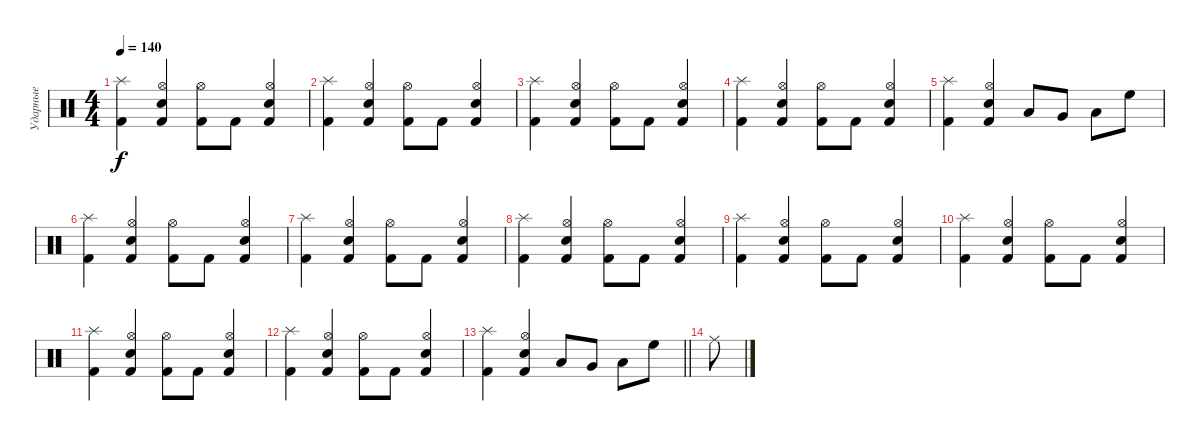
\track ("Ударные" "Ударные") {instrument percussion}
\staff {score}
\articulation defaults
\ts (4 4)
\tempo 140
\clef neutral
\ks c
("Splash (hit)" "Kick (hit) 2").4{dy f} ("Hi-Hat (open)" "Electric Snare (hit)" "Kick (hit) 2").4 ("Hi-Hat (open)" "Kick (hit) 2").8 "Kick (hit) 2".8 ("Hi-Hat (open)" "Electric Snare (hit)" "Kick (hit) 2").4 |
("Splash (hit)" "Kick (hit) 2").4 ("Hi-Hat (open)" "Electric Snare (hit)" "Kick (hit) 2").4 ("Hi-Hat (open)" "Kick (hit) 2").8 "Kick (hit) 2".8 ("Hi-Hat (open)" "Electric Snare (hit)" "Kick (hit) 2").4 |
("Splash (hit)" "Kick (hit) 2").4 ("Hi-Hat (open)" "Electric Snare (hit)" "Kick (hit) 2").4 ("Hi-Hat (open)" "Kick (hit) 2").8 "Kick (hit) 2".8 ("Hi-Hat (open)" "Electric Snare (hit)" "Kick (hit) 2").4 |
("Splash (hit)" "Kick (hit) 2").4 ("Hi-Hat (open)" "Electric Snare (hit)" "Kick (hit) 2").4 ("Hi-Hat (open)" "Kick (hit) 2").8 "Kick (hit) 2".8 ("Hi-Hat (open)" "Electric Snare (hit)" "Kick (hit) 2").4 |
("Splash (hit)" "Kick (hit) 2").4 ("Hi-Hat (open)" "Electric Snare (hit)" "Kick (hit) 2").4 "Low Floor Tom (hit)".8 "Very Low Tom (hit)".8 "Low Tom (hit)".8 "High Floor Tom (hit)".8 |
("Splash (hit)" "Kick (hit) 2").4 ("Hi-Hat (open)" "Electric Snare (hit)" "Kick (hit) 2").4 ("Hi-Hat (open)" "Kick (hit) 2").8 "Kick (hit) 2".8 ("Hi-Hat (open)" "Electric Snare (hit)" "Kick (hit) 2").4 |
("Splash (hit)" "Kick (hit) 2").4 ("Hi-Hat (open)" "Electric Snare (hit)" "Kick (hit) 2").4 ("Hi-Hat (open)" "Kick (hit) 2").8 "Kick (hit) 2".8 ("Hi-Hat (open)" "Electric Snare (hit)" "Kick (hit) 2").4 |
("Splash (hit)" "Kick (hit) 2").4 ("Hi-Hat (open)" "Electric Snare (hit)" "Kick (hit) 2").4 ("Hi-Hat (open)" "Kick (hit) 2").8 "Kick (hit) 2".8 ("Hi-Hat (open)" "Electric Snare (hit)" "Kick (hit) 2").4 |
("Splash (hit)" "Kick (hit) 2").4 ("Hi-Hat (open)" "Electric Snare (hit)" "Kick (hit) 2").4 ("Hi-Hat (open)" "Kick (hit) 2").8 "Kick (hit) 2".8 ("Hi-Hat (open)" "Electric Snare (hit)" "Kick (hit) 2").4 |
("Splash (hit)" "Kick (hit) 2").4 ("Hi-Hat (open)" "Electric Snare (hit)" "Kick (hit) 2").4 ("Hi-Hat (open)" "Kick (hit) 2").8 "Kick (hit) 2".8 ("Hi-Hat (open)" "Electric Snare (hit)" "Kick (hit) 2").4 |
("Splash (hit)" "Kick (hit) 2").4 ("Hi-Hat (open)" "Electric Snare (hit)" "Kick (hit) 2").4 ("Hi-Hat (open)" "Kick (hit) 2").8 "Kick (hit) 2".8 ("Hi-Hat (open)" "Electric Snare (hit)" "Kick (hit) 2").4 |
("Splash (hit)" "Kick (hit) 2").4 ("Hi-Hat (open)" "Electric Snare (hit)" "Kick (hit) 2").4 ("Hi-Hat (open)" "Kick (hit) 2").8 "Kick (hit) 2".8 ("Hi-Hat (open)" "Electric Snare (hit)" "Kick (hit) 2").4 |
\barLineRight lightlight
("Splash (hit)" "Kick (hit) 2").4 ("Hi-Hat (open)" "Electric Snare (hit)" "Kick (hit) 2").4 "Low Floor Tom (hit)".8 "Very Low Tom (hit)".8 "Low Tom (hit)".8 "High Floor Tom (hit)".8 |
"Ride (middle)".8
